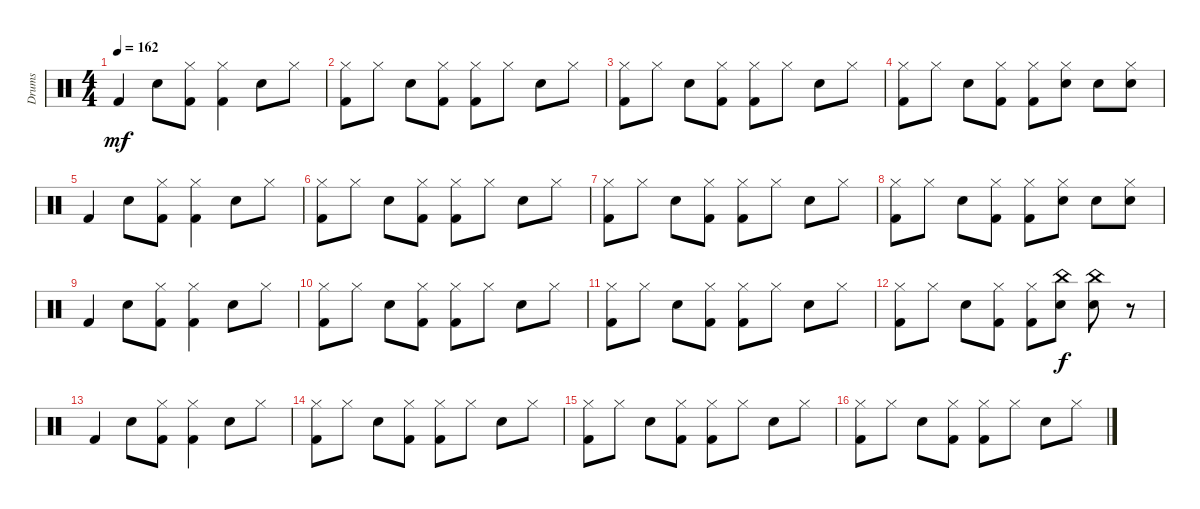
\track ("Drums" "Drums") {instrument percussion}
\staff {score}
\articulation defaults
\ts (4 4)
\tempo 162
\clef neutral
\ks c "Kick (hit) 2".4{dy mf} "Snare (hit) 2".8
("Hi-Hat (closed)" "Kick (hit) 2").8 ("Hi-Hat (closed)" "Kick (hit) 2").4 "Snare (hit) 2".8 "Hi-Hat (closed)".8 |
("Hi-Hat (closed)" "Kick (hit) 2").8 "Hi-Hat (closed)".8 "Snare (hit) 2".8 ("Hi-Hat (closed)" "Kick (hit) 2").8 ("Hi-Hat (closed)" "Kick (hit) 2").8 "Hi-Hat (closed)".8 "Snare (hit) 2".8 "Hi-Hat (closed)".8 |
("Hi-Hat (closed)" "Kick (hit) 2").8 "Hi-Hat (closed)".8 "Snare (hit) 2".8 ("Hi-Hat (closed)" "Kick (hit) 2").8 ("Hi-Hat (closed)" "Kick (hit) 2").8 "Hi-Hat (closed)".8 "Snare (hit) 2".8 "Hi-Hat (closed)".8 |
("Hi-Hat (closed)" "Kick (hit) 2").8 "Hi-Hat (closed)".8 "Snare (hit) 2".8 ("Hi-Hat (closed)" "Kick (hit) 2").8 ("Hi-Hat (closed)" "Kick (hit) 2").8 ("Hi-Hat (closed)" "Snare (hit) 2").8 "Snare (hit) 2".8 ("Hi-Hat (closed)" "Snare (hit) 2").8 |
"Kick (hit) 2".4 "Snare (hit) 2".8 ("Hi-Hat (closed)" "Kick (hit) 2").8 ("Hi-Hat (closed)" "Kick (hit) 2").4 "Snare (hit) 2".8 "Hi-Hat (closed)".8 |
("Hi-Hat (closed)" "Kick (hit) 2").8 "Hi-Hat (closed)".8 "Snare (hit) 2".8 ("Hi-Hat (closed)" "Kick (hit) 2").8 ("Hi-Hat (closed)" "Kick (hit) 2").8 "Hi-Hat (closed)".8 "Snare (hit) 2".8 "Hi-Hat (closed)".8 |
("Hi-Hat (closed)" "Kick (hit) 2").8 "Hi-Hat (closed)".8 "Snare (hit) 2".8 ("Hi-Hat (closed)" "Kick (hit) 2").8 ("Hi-Hat (closed)" "Kick (hit) 2").8 "Hi-Hat (closed)".8 "Snare (hit) 2".8 "Hi-Hat (closed)".8 |
("Hi-Hat (closed)" "Kick (hit) 2").8 "Hi-Hat (closed)".8 "Snare (hit) 2".8 ("Hi-Hat (closed)" "Kick (hit) 2").8 ("Hi-Hat (closed)" "Kick (hit) 2").8 ("Hi-Hat (closed)" "Snare (hit) 2").8 "Snare (hit) 2".8 ("Hi-Hat (closed)" "Snare (hit) 2").8 |
"Kick (hit) 2".4 "Snare (hit) 2".8 ("Hi-Hat (closed)" "Kick (hit) 2").8 ("Hi-Hat (closed)" "Kick (hit) 2").4 "Snare (hit) 2".8 "Hi-Hat (closed)".8 |
("Hi-Hat (closed)" "Kick (hit) 2").8 "Hi-Hat (closed)".8 "Snare (hit) 2".8 ("Hi-Hat (closed)" "Kick (hit) 2").8 ("Hi-Hat (closed)" "Kick (hit) 2").8 "Hi-Hat (closed)".8 "Snare (hit) 2".8 "Hi-Hat (closed)".8 |
("Hi-Hat (closed)" "Kick (hit) 2").8 "Hi-Hat (closed)".8 "Snare (hit) 2".8 ("Hi-Hat (closed)" "Kick (hit) 2").8 ("Hi-Hat (closed)" "Kick (hit) 2").8 "Hi-Hat (closed)".8 "Snare (hit) 2".8 "Hi-Hat (closed)".8 |
("Hi-Hat (closed)" "Kick (hit) 2").8 "Hi-Hat (closed)".8 "Snare (hit) 2".8 ("Hi-Hat (closed)" "Kick (hit) 2").8 ("Hi-Hat (closed)" "Kick (hit) 2").8 ("China (hit)" "Snare (hit) 2").8{dy f} ("China (hit)" "Snare (hit) 2").8 r.8 |
"Kick (hit) 2".4 "Snare (hit) 2".8 ("Hi-Hat (closed)" "Kick (hit) 2").8 ("Hi-Hat (closed)" "Kick (hit) 2").4 "Snare (hit) 2".8 "Hi-Hat (closed)".8 |
("Hi-Hat (closed)" "Kick (hit) 2").8 "Hi-Hat (closed)".8 "Snare (hit) 2".8 ("Hi-Hat (closed)" "Kick (hit) 2").8 ("Hi-Hat (closed)" "Kick (hit) 2").8 "Hi-Hat (closed)".8 "Snare (hit) 2".8 "Hi-Hat (closed)".8 |
("Hi-Hat (closed)" "Kick (hit) 2").8 "Hi-Hat (closed)".8 "Snare (hit) 2".8 ("Hi-Hat (closed)" "Kick (hit) 2").8 ("Hi-Hat (closed)" "Kick (hit) 2").8 "Hi-Hat (closed)".8 "Snare (hit) 2".8 "Hi-Hat (closed)".8 |
("Hi-Hat (closed)" "Kick (hit) 2").8 "Hi-Hat (closed)".8 "Snare (hit) 2".8 ("Hi-Hat (closed)" "Kick (hit) 2").8 ("Hi-Hat (closed)" "Kick (hit) 2").8 "Hi-Hat (closed)".8 "Snare (hit) 2".8 "Hi-Hat (closed)".8
